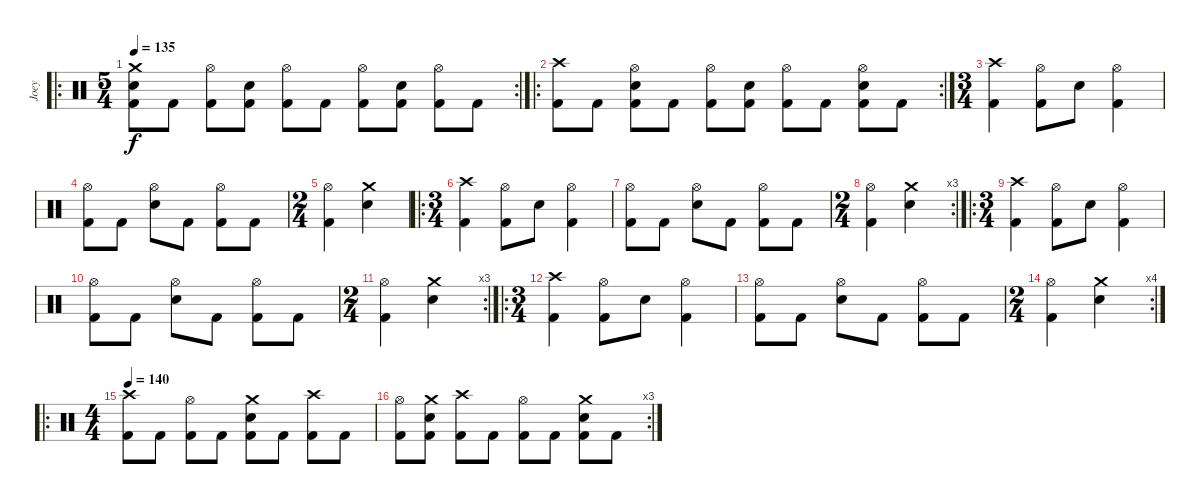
\track ("Joey" "Joey") {instrument percussion}
\staff {score}
\articulation defaults
\ro
\rc 2
\ts (5 4)
\tempo 135
\clef neutral
\ks c
("Crash medium (hit)" "Electric Snare (hit)" "Kick (hit) 2").8{dy f} "Kick (hit) 2".8 ("Hi-Hat (open)" "Kick (hit) 2").8 ("Electric Snare (hit)" "Kick (hit) 2").8 ("Hi-Hat (open)" "Kick (hit) 2").8 "Kick (hit) 2".8 ("Hi-Hat (open)" "Kick (hit) 2").8 ("Electric Snare (hit)" "Kick (hit) 2").8 ("Hi-Hat (open)" "Kick (hit) 2").8 "Kick (hit) 2".8 |
\ro
\rc 2
("Crash high (hit)" "Kick (hit) 2").8 "Kick (hit) 2".8 ("Hi-Hat (open)" "Electric Snare (hit)" "Kick (hit) 2").8 "Kick (hit) 2".8 ("Hi-Hat (open)" "Kick (hit) 2").8 ("Electric Snare (hit)" "Kick (hit) 2").8 ("Hi-Hat (open)" "Kick (hit) 2").8 "Kick (hit) 2".8 ("Hi-Hat (open)" "Electric Snare (hit)" "Kick (hit) 2").8 "Kick (hit) 2".8 |
\ts (3 4)
("Crash high (hit)" "Kick (hit) 2").4 ("Hi-Hat (open)" "Kick (hit) 2").8 "Electric Snare (hit)".8 ("Hi-Hat (open)" "Kick (hit) 2").4 |
("Hi-Hat (open)" "Kick (hit) 2").8 "Kick (hit) 2".8 ("Hi-Hat (open)" "Electric Snare (hit)").8 "Kick (hit) 2".8 ("Hi-Hat (open)" "Kick (hit) 2").8 "Kick (hit) 2".8 |
\ts (2 4)
("Hi-Hat (open)" "Kick (hit) 2").4 ("Crash medium (hit)" "Electric Snare (hit)").4 |
\ro
\ts (3 4)
("Crash high (hit)" "Kick (hit) 2").4 ("Hi-Hat (open)" "Kick (hit) 2").8 "Electric Snare (hit)".8 ("Hi-Hat (open)" "Kick (hit) 2").4 |
("Hi-Hat (open)" "Kick (hit) 2").8 "Kick (hit) 2".8 ("Hi-Hat (open)" "Electric Snare (hit)").8 "Kick (hit) 2".8 ("Hi-Hat (open)" "Kick (hit) 2").8 "Kick (hit) 2".8 |
\rc 3
\ts (2 4)
("Hi-Hat (open)" "Kick (hit) 2").4 ("Crash medium (hit)" "Electric Snare (hit)").4 |
\ro
\ts (3 4)
("Crash high (hit)" "Kick (hit) 2").4 ("Hi-Hat (open)" "Kick (hit) 2").8 "Electric Snare (hit)".8 ("Hi-Hat (open)" "Kick (hit) 2").4 |
("Hi-Hat (open)" "Kick (hit) 2").8 "Kick (hit) 2".8 ("Hi-Hat (open)" "Electric Snare (hit)").8 "Kick (hit) 2".8 ("Hi-Hat (open)" "Kick (hit) 2").8 "Kick (hit) 2".8 |
\rc 3
\ts (2 4)
("Hi-Hat (open)" "Kick (hit) 2").4 ("Crash medium (hit)" "Electric Snare (hit)").4 |
\ro
\ts (3 4)
("Crash high (hit)" "Kick (hit) 2").4 ("Hi-Hat (open)" "Kick (hit) 2").8 "Electric Snare (hit)".8 ("Hi-Hat (open)" "Kick (hit) 2").4 |
("Hi-Hat (open)" "Kick (hit) 2").8 "Kick (hit) 2".8 ("Hi-Hat (open)" "Electric Snare (hit)").8 "Kick (hit) 2".8 ("Hi-Hat (open)" "Kick (hit) 2").8 "Kick (hit) 2".8 |
\rc 4
\ts (2 4)
("Hi-Hat (open)" "Kick (hit) 2").4 ("Crash medium (hit)" "Electric Snare (hit)").4 |
\ro
\ts (4 4)
\tempo 140
("Crash high (hit)" "Kick (hit) 2").8 "Kick (hit) 2".8 ("Hi-Hat (open)" "Kick (hit) 2").8 "Kick (hit) 2".8 ("Crash medium (hit)" "Electric Snare (hit)" "Kick (hit) 2").8 "Kick (hit) 2".8 ("Crash high (hit)" "Kick (hit) 2").8 "Kick (hit) 2".8 |
\rc 3
("Hi-Hat (open)" "Kick (hit) 2").8 ("Crash medium (hit)" "Electric Snare (hit)" "Kick (hit) 2").8 ("Crash high (hit)" "Kick (hit) 2").8 "Kick (hit) 2".8 ("Hi-Hat (open)" "Kick (hit) 2").8 "Kick (hit) 2".8 ("Crash medium (hit)" "Electric Snare (hit)" "Kick (hit) 2").8 "Kick (hit) 2".8
